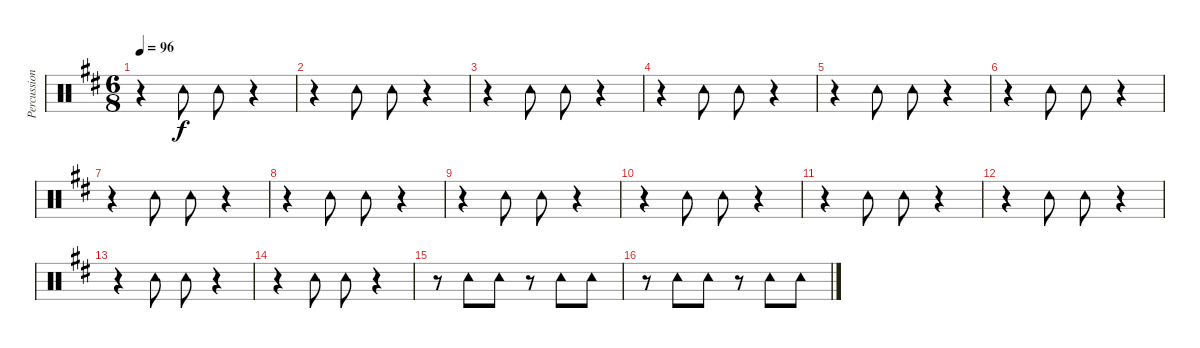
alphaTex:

\track ("Percussion" "Percussion") {instrument percussion}
\staff {score}
\articulation defaults
\ts (6 8)
\tempo 96
\clef neutral
\ks bminor
r.4{dy f} "Tambourine (hit)".8 "Tambourine (hit)".8 r.4 |
r.4 "Tambourine (hit)".8 "Tambourine (hit)".8 r.4 |
r.4 "Tambourine (hit)".8 "Tambourine (hit)".8 r.4 |
r.4 "Tambourine (hit)".8 "Tambourine (hit)".8 r.4 |
r.4 "Tambourine (hit)".8 "Tambourine (hit)".8 r.4 |
r.4 "Tambourine (hit)".8 "Tambourine (hit)".8 r.4 |
r.4 "Tambourine (hit)".8 "Tambourine (hit)".8 r.4 |
r.4 "Tambourine (hit)".8 "Tambourine (hit)".8 r.4 |
r.4 "Tambourine (hit)".8 "Tambourine (hit)".8 r.4 |
r.4 "Tambourine (hit)".8 "Tambourine (hit)".8 r.4 |
r.4 "Tambourine (hit)".8 "Tambourine (hit)".8 r.4 |
r.4 "Tambourine (hit)".8 "Tambourine (hit)".8 r.4 |
r.4 "Tambourine (hit)".8 "Tambourine (hit)".8 r.4 |
r.4 "Tambourine (hit)".8 "Tambourine (hit)".8 r.4 |
r.8 "Tambourine (hit)".8 "Tambourine (hit)".8 r.8 "Tambourine (hit)".8 "Tambourine (hit)".8 |
r.8 "Tambourine (hit)".8 "Tambourine (hit)".8 r.8 "Tambourine (hit)".8 "Tambourine (hit)".8
